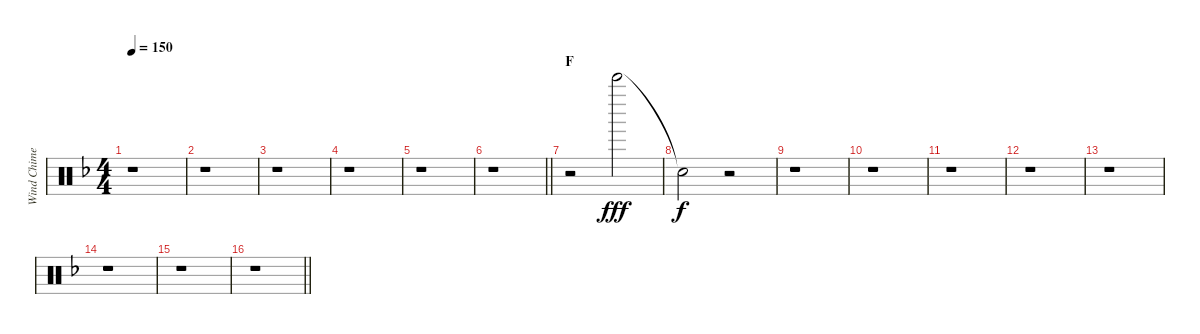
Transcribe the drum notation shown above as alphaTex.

\track ("Wind Chime" "Wind Chime") {instrument percussion}
\staff {score}
\articulation defaults
\ts (4 4)
\tempo 150
\clef neutral
\ks f
r.1{dy f} |
r.1 |
r.1 |
r.1 |
r.1 |
\barLineRight lightlight
r.1 |
\section ("" "F")
r.2 "Bell Tree (hit)".2{dy fff} |
"Snare (hit)"{t}.2{dy f} r.2 |
r.1 |
r.1 |
r.1 |
r.1 |
r.1 |
r.1 |
r.1 |
\barLineRight lightlight
r.1
